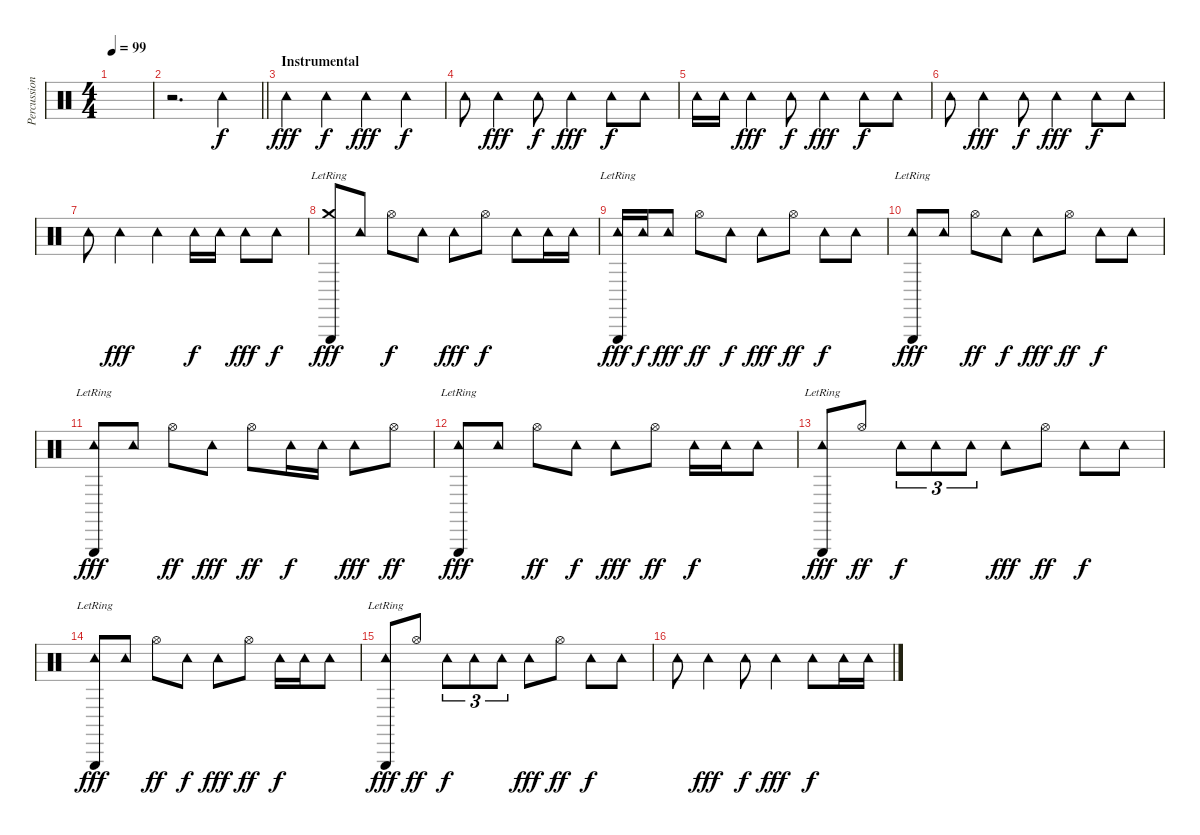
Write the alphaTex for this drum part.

\track ("Percussion" "Percussion") {instrument percussion}
\staff {score}
\articulation defaults
\ts (4 4)
\tempo 99
\clef neutral
\ks c
|
\barLineRight lightlight
r.2{d} "Tambourine (hit)".4 |
\section ("" "Instrumental")
"Tambourine (hit)".4{dy fff} "Tambourine (hit)".4{dy f} "Tambourine (hit)".4{dy fff} "Tambourine (hit)".4{dy f} |
"Tambourine (hit)".8{volume 4} "Tambourine (hit)".4{dy fff} "Tambourine (hit)".8{dy f} "Tambourine (hit)".4{dy fff} "Tambourine (hit)".8{dy f} "Tambourine (hit)".8 |
"Tambourine (hit)".16 "Tambourine (hit)".16 "Tambourine (hit)".4{dy fff} "Tambourine (hit)".8{dy f} "Tambourine (hit)".4{dy fff} "Tambourine (hit)".8{dy f} "Tambourine (hit)".8 |
"Tambourine (hit)".8 "Tambourine (hit)".4{dy fff} "Tambourine (hit)".8{dy f} "Tambourine (hit)".4{dy fff} "Tambourine (hit)".8{dy f} "Tambourine (hit)".8 |
"Tambourine (hit)".8 "Tambourine (hit)".4{dy fff} "Tambourine (hit)".4 "Tambourine (hit)".16{dy f} "Tambourine (hit)".16 "Tambourine (hit)".8{dy fff} "Tambourine (hit)".8{dy f} |
("Crash medium (hit)" "Triangle (hit)"{lr}).8{dy fff} "Tambourine (hit)".8 "Hi-Hat (open)".8{dy f} "Tambourine (hit)".8 "Tambourine (hit)".8{dy fff} "Hi-Hat (open)".8{dy f} "Tambourine (hit)".8 "Tambourine (hit)".16 "Tambourine (hit)".16 |
("Tambourine (hit)" "Triangle (hit)"{lr}).16{dy fff} "Tambourine (hit)".16{dy f} "Tambourine (hit)".8{dy fff} "Hi-Hat (open)".8{dy ff} "Tambourine (hit)".8{dy f} "Tambourine (hit)".8{dy fff} "Hi-Hat (open)".8{dy ff} "Tambourine (hit)".8{dy f} "Tambourine (hit)".8 |
("Tambourine (hit)" "Triangle (hit)"{lr}).8{dy fff} "Tambourine (hit)".8 "Hi-Hat (open)".8{dy ff} "Tambourine (hit)".8{dy f} "Tambourine (hit)".8{dy fff} "Hi-Hat (open)".8{dy ff} "Tambourine (hit)".8{dy f} "Tambourine (hit)".8 |
("Tambourine (hit)" "Triangle (hit)"{lr}).8{dy fff} "Tambourine (hit)".8 "Hi-Hat (open)".8{dy ff} "Tambourine (hit)".8{dy fff} "Hi-Hat (open)".8{dy ff} "Tambourine (hit)".16{dy f} "Tambourine (hit)".16 "Tambourine (hit)".8{dy fff} "Hi-Hat (open)".8{dy ff} |
("Tambourine (hit)" "Triangle (hit)"{lr}).8{dy fff} "Tambourine (hit)".8 "Hi-Hat (open)".8{dy ff} "Tambourine (hit)".8{dy f} "Tambourine (hit)".8{dy fff} "Hi-Hat (open)".8{dy ff} "Tambourine (hit)".16{dy f} "Tambourine (hit)".16 "Tambourine (hit)".8 |
("Tambourine (hit)" "Triangle (hit)"{lr}).8{dy fff} "Hi-Hat (open)".8{dy ff} "Tambourine (hit)".8{tu (3 2) dy f} "Tambourine (hit)".8{tu (3 2)} "Tambourine (hit)".8{tu (3 2)} "Tambourine (hit)".8{dy fff} "Hi-Hat (open)".8{dy ff} "Tambourine (hit)".8{dy f} "Tambourine (hit)".8 |
("Tambourine (hit)" "Triangle (hit)"{lr}).8{dy fff} "Tambourine (hit)".8 "Hi-Hat (open)".8{dy ff} "Tambourine (hit)".8{dy f} "Tambourine (hit)".8{dy fff} "Hi-Hat (open)".8{dy ff} "Tambourine (hit)".16{dy f} "Tambourine (hit)".16 "Tambourine (hit)".8 |
("Tambourine (hit)" "Triangle (hit)"{lr}).8{dy fff} "Hi-Hat (open)".8{dy ff} "Tambourine (hit)".8{tu (3 2) dy f} "Tambourine (hit)".8{tu (3 2)} "Tambourine (hit)".8{tu (3 2)} "Tambourine (hit)".8{dy fff} "Hi-Hat (open)".8{dy ff} "Tambourine (hit)".8{dy f} "Tambourine (hit)".8 |
"Tambourine (hit)".8 "Tambourine (hit)".4{dy fff} "Tambourine (hit)".8{dy f} "Tambourine (hit)".4{dy fff} "Tambourine (hit)".8{dy f} "Tambourine (hit)".16 "Tambourine (hit)".16
